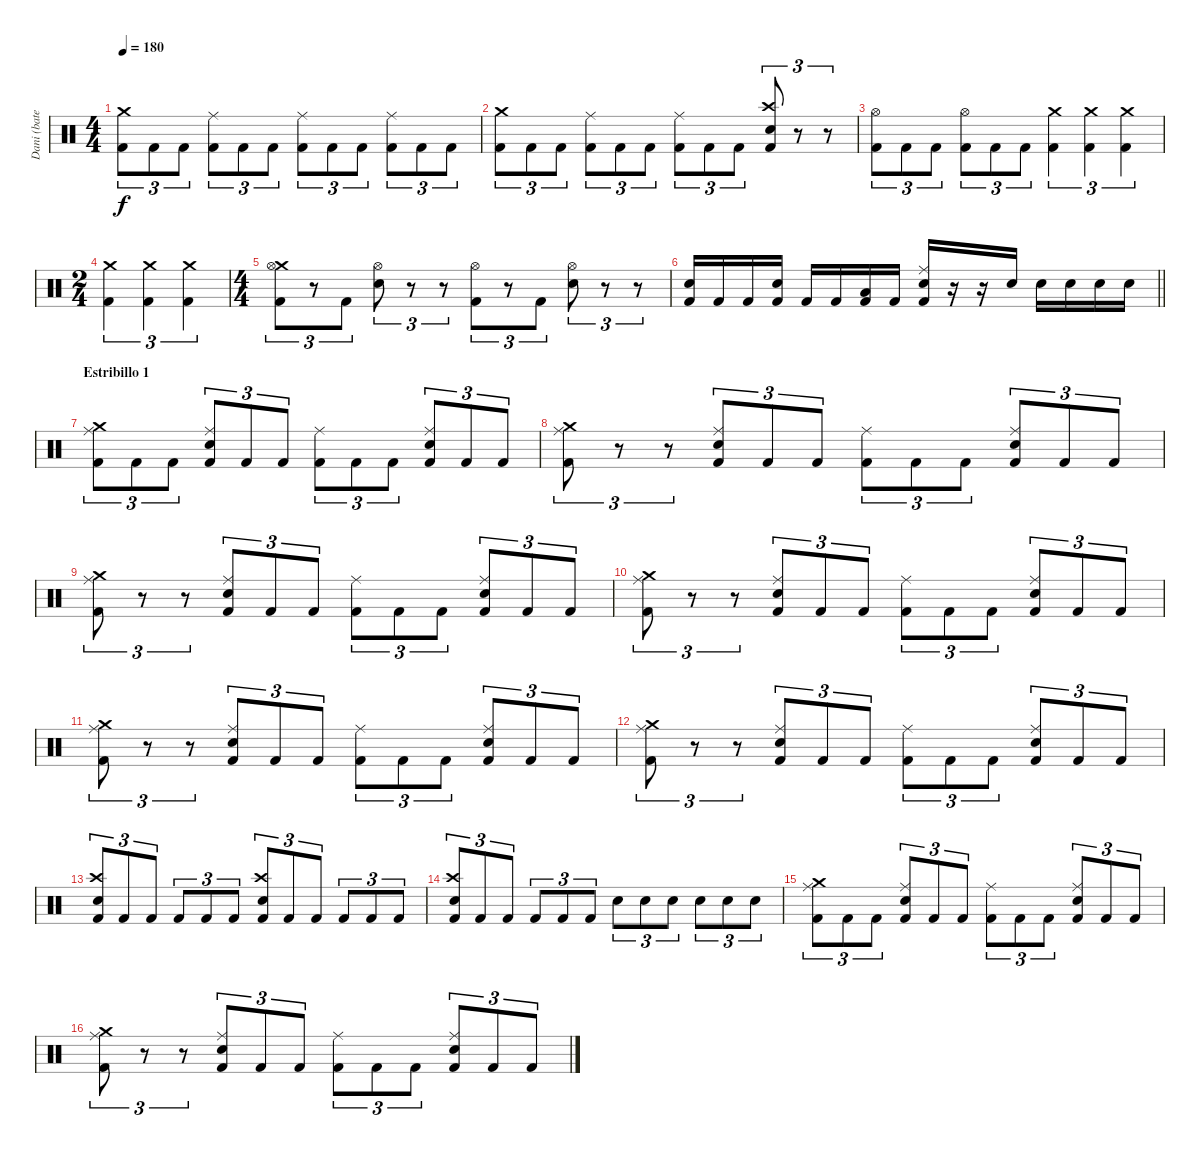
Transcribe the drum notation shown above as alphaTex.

\track ("Dani (bateria)" "Dani (bate") {instrument percussion}
\staff {score}
\articulation defaults
\ts (4 4)
\tempo 180
\clef neutral
\ks c
("Crash medium (hit)" "Kick (hit) 2").8{tu (3 2) dy f} "Kick (hit) 2".8{tu (3 2)} "Kick (hit) 2".8{tu (3 2)} ("Ride (middle)" "Kick (hit) 2").8{tu (3 2)} "Kick (hit) 2".8{tu (3 2)} "Kick (hit) 2".8{tu (3 2)} ("Ride (middle)" "Kick (hit) 2").8{tu (3 2)} "Kick (hit) 2".8{tu (3 2)} "Kick (hit) 2".8{tu (3 2)} ("Ride (middle)" "Kick (hit) 2").8{tu (3 2)} "Kick (hit) 2".8{tu (3 2)} "Kick (hit) 2".8{tu (3 2)} |
("Crash medium (hit)" "Kick (hit) 2").8{tu (3 2)} "Kick (hit) 2".8{tu (3 2)} "Kick (hit) 2".8{tu (3 2)} ("Ride (middle)" "Kick (hit) 2").8{tu (3 2)} "Kick (hit) 2".8{tu (3 2)} "Kick (hit) 2".8{tu (3 2)} ("Ride (middle)" "Kick (hit) 2").8{tu (3 2)} "Kick (hit) 2".8{tu (3 2)} "Kick (hit) 2".8{tu (3 2)} ("Crash high (hit)" "Electric Snare (hit)" "Kick (hit) 2").8{tu (3 2)} r.8{tu (3 2)} r.8{tu (3 2)} |
("Hi-Hat (open)" "Kick (hit) 2").8{tu (3 2)} "Kick (hit) 2".8{tu (3 2)} "Kick (hit) 2".8{tu (3 2)} ("Hi-Hat (open)" "Kick (hit) 2").8{tu (3 2)} "Kick (hit) 2".8{tu (3 2)} "Kick (hit) 2".8{tu (3 2)} ("Crash medium (hit)" "Kick (hit) 2").4{tu (3 2)} ("Crash medium (hit)" "Kick (hit) 2").4{tu (3 2)} ("Crash medium (hit)" "Kick (hit) 2").4{tu (3 2)} |
\ts (2 4)
("Crash medium (hit)" "Kick (hit) 2").4{tu (3 2)} ("Crash medium (hit)" "Kick (hit) 2").4{tu (3 2)} ("Crash medium (hit)" "Kick (hit) 2").4{tu (3 2)} |
\ts (4 4)
("Crash medium (hit)" "Hi-Hat (open)" "Kick (hit) 2").8{tu (3 2)} r.8{tu (3 2)} "Kick (hit) 2".8{tu (3 2)} ("Hi-Hat (open)" "Electric Snare (hit)").8{tu (3 2)} r.8{tu (3 2)} r.8{tu (3 2)} ("Hi-Hat (open)" "Kick (hit) 2").8{tu (3 2)} r.8{tu (3 2)} "Kick (hit) 2".8{tu (3 2)} ("Hi-Hat (open)" "Electric Snare (hit)").8{tu (3 2)} r.8{tu (3 2)} r.8{tu (3 2)} |
\barLineRight lightlight
("Electric Snare (hit)" "Kick (hit) 2").16 "Kick (hit) 2".16 "Kick (hit) 2".16 ("Electric Snare (hit)" "Kick (hit) 2").16 "Kick (hit) 2".16 "Kick (hit) 2".16 ("Low Tom (hit)" "Kick (hit) 2").16 "Kick (hit) 2".16 ("Ride (middle)" "Electric Snare (hit)" "Kick (hit) 2").16 r.16 r.16 "Electric Snare (hit)".16 "Electric Snare (hit)".16 "Electric Snare (hit)".16 "Electric Snare (hit)".16 "Electric Snare (hit)".16 |
\section ("" "Estribillo 1")
("Crash medium (hit)" "Ride (middle)" "Kick (hit) 2").8{tu (3 2)} "Kick (hit) 2".8{tu (3 2)} "Kick (hit) 2".8{tu (3 2)} ("Ride (middle)" "Electric Snare (hit)" "Kick (hit) 2").8{tu (3 2)} "Kick (hit) 2".8{tu (3 2)} "Kick (hit) 2".8{tu (3 2)} ("Ride (middle)" "Kick (hit) 2").8{tu (3 2)} "Kick (hit) 2".8{tu (3 2)} "Kick (hit) 2".8{tu (3 2)} ("Ride (middle)" "Electric Snare (hit)" "Kick (hit) 2").8{tu (3 2)} "Kick (hit) 2".8{tu (3 2)} "Kick (hit) 2".8{tu (3 2)} |
("Crash medium (hit)" "Ride (middle)" "Kick (hit) 2").8{tu (3 2)} r.8{tu (3 2)} r.8{tu (3 2)} ("Ride (middle)" "Electric Snare (hit)" "Kick (hit) 2").8{tu (3 2)} "Kick (hit) 2".8{tu (3 2)} "Kick (hit) 2".8{tu (3 2)} ("Ride (middle)" "Kick (hit) 2").8{tu (3 2)} "Kick (hit) 2".8{tu (3 2)} "Kick (hit) 2".8{tu (3 2)} ("Ride (middle)" "Electric Snare (hit)" "Kick (hit) 2").8{tu (3 2)} "Kick (hit) 2".8{tu (3 2)} "Kick (hit) 2".8{tu (3 2)} |
("Crash medium (hit)" "Ride (middle)" "Kick (hit) 2").8{tu (3 2)} r.8{tu (3 2)} r.8{tu (3 2)} ("Ride (middle)" "Electric Snare (hit)" "Kick (hit) 2").8{tu (3 2)} "Kick (hit) 2".8{tu (3 2)} "Kick (hit) 2".8{tu (3 2)} ("Ride (middle)" "Kick (hit) 2").8{tu (3 2)} "Kick (hit) 2".8{tu (3 2)} "Kick (hit) 2".8{tu (3 2)} ("Ride (middle)" "Electric Snare (hit)" "Kick (hit) 2").8{tu (3 2)} "Kick (hit) 2".8{tu (3 2)} "Kick (hit) 2".8{tu (3 2)} |
("Crash medium (hit)" "Ride (middle)" "Kick (hit) 2").8{tu (3 2)} r.8{tu (3 2)} r.8{tu (3 2)} ("Ride (middle)" "Electric Snare (hit)" "Kick (hit) 2").8{tu (3 2)} "Kick (hit) 2".8{tu (3 2)} "Kick (hit) 2".8{tu (3 2)} ("Ride (middle)" "Kick (hit) 2").8{tu (3 2)} "Kick (hit) 2".8{tu (3 2)} "Kick (hit) 2".8{tu (3 2)} ("Ride (middle)" "Electric Snare (hit)" "Kick (hit) 2").8{tu (3 2)} "Kick (hit) 2".8{tu (3 2)} "Kick (hit) 2".8{tu (3 2)} |
("Crash medium (hit)" "Ride (middle)" "Kick (hit) 2").8{tu (3 2)} r.8{tu (3 2)} r.8{tu (3 2)} ("Ride (middle)" "Electric Snare (hit)" "Kick (hit) 2").8{tu (3 2)} "Kick (hit) 2".8{tu (3 2)} "Kick (hit) 2".8{tu (3 2)} ("Ride (middle)" "Kick (hit) 2").8{tu (3 2)} "Kick (hit) 2".8{tu (3 2)} "Kick (hit) 2".8{tu (3 2)} ("Ride (middle)" "Electric Snare (hit)" "Kick (hit) 2").8{tu (3 2)} "Kick (hit) 2".8{tu (3 2)} "Kick (hit) 2".8{tu (3 2)} |
("Crash medium (hit)" "Ride (middle)" "Kick (hit) 2").8{tu (3 2)} r.8{tu (3 2)} r.8{tu (3 2)} ("Ride (middle)" "Electric Snare (hit)" "Kick (hit) 2").8{tu (3 2)} "Kick (hit) 2".8{tu (3 2)} "Kick (hit) 2".8{tu (3 2)} ("Ride (middle)" "Kick (hit) 2").8{tu (3 2)} "Kick (hit) 2".8{tu (3 2)} "Kick (hit) 2".8{tu (3 2)} ("Ride (middle)" "Electric Snare (hit)" "Kick (hit) 2").8{tu (3 2)} "Kick (hit) 2".8{tu (3 2)} "Kick (hit) 2".8{tu (3 2)} |
("Crash high (hit)" "Electric Snare (hit)" "Kick (hit) 2").8{tu (3 2)} "Kick (hit) 2".8{tu (3 2)} "Kick (hit) 2".8{tu (3 2)} "Kick (hit) 2".8{tu (3 2)} "Kick (hit) 2".8{tu (3 2)} "Kick (hit) 2".8{tu (3 2)} ("Crash high (hit)" "Electric Snare (hit)" "Kick (hit) 2").8{tu (3 2)} "Kick (hit) 2".8{tu (3 2)} "Kick (hit) 2".8{tu (3 2)} "Kick (hit) 2".8{tu (3 2)} "Kick (hit) 2".8{tu (3 2)} "Kick (hit) 2".8{tu (3 2)} |
("Crash high (hit)" "Electric Snare (hit)" "Kick (hit) 2").8{tu (3 2)} "Kick (hit) 2".8{tu (3 2)} "Kick (hit) 2".8{tu (3 2)} "Kick (hit) 2".8{tu (3 2)} "Kick (hit) 2".8{tu (3 2)} "Kick (hit) 2".8{tu (3 2)} "Electric Snare (hit)".8{tu (3 2)} "Electric Snare (hit)".8{tu (3 2)} "Electric Snare (hit)".8{tu (3 2)} "Electric Snare (hit)".8{tu (3 2)} "Electric Snare (hit)".8{tu (3 2)} "Electric Snare (hit)".8{tu (3 2)} |
("Crash medium (hit)" "Ride (middle)" "Kick (hit) 2").8{tu (3 2)} "Kick (hit) 2".8{tu (3 2)} "Kick (hit) 2".8{tu (3 2)} ("Ride (middle)" "Electric Snare (hit)" "Kick (hit) 2").8{tu (3 2)} "Kick (hit) 2".8{tu (3 2)} "Kick (hit) 2".8{tu (3 2)} ("Ride (middle)" "Kick (hit) 2").8{tu (3 2)} "Kick (hit) 2".8{tu (3 2)} "Kick (hit) 2".8{tu (3 2)} ("Ride (middle)" "Electric Snare (hit)" "Kick (hit) 2").8{tu (3 2)} "Kick (hit) 2".8{tu (3 2)} "Kick (hit) 2".8{tu (3 2)} |
("Crash medium (hit)" "Ride (middle)" "Kick (hit) 2").8{tu (3 2)} r.8{tu (3 2)} r.8{tu (3 2)} ("Ride (middle)" "Electric Snare (hit)" "Kick (hit) 2").8{tu (3 2)} "Kick (hit) 2".8{tu (3 2)} "Kick (hit) 2".8{tu (3 2)} ("Ride (middle)" "Kick (hit) 2").8{tu (3 2)} "Kick (hit) 2".8{tu (3 2)} "Kick (hit) 2".8{tu (3 2)} ("Ride (middle)" "Electric Snare (hit)" "Kick (hit) 2").8{tu (3 2)} "Kick (hit) 2".8{tu (3 2)} "Kick (hit) 2".8{tu (3 2)}
